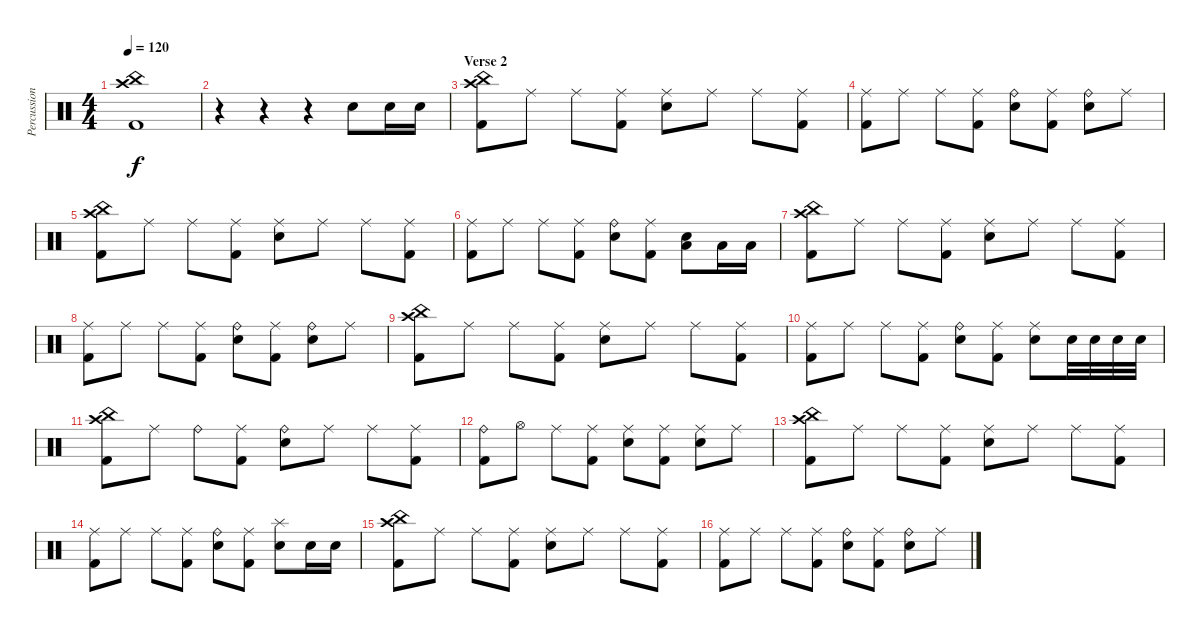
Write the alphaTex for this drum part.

\track ("Percussion" "Percussion") {instrument percussion}
\staff {score}
\articulation defaults
\ts (4 4)
\tempo 120
\clef neutral
\ks c
("China (hit)" "Crash high (hit)" "Kick (hit) 2").1{dy f} |
r.4 r.4 r.4 "Electric Snare (hit)".8 "Electric Snare (hit)".16 "Electric Snare (hit)".16 |
\section ("" "Verse 2")
("China (hit)" "Crash high (hit)" "Kick (hit) 2").8 "Ride (middle)".8 "Ride (middle)".8 ("Ride (middle)" "Kick (hit) 2").8 ("Ride (middle)" "Electric Snare (hit)").8 "Ride (middle)".8 "Ride (middle)".8 ("Ride (middle)" "Kick (hit) 2").8 |
("Ride (middle)" "Kick (hit) 2").8 "Ride (middle)".8 "Ride (middle)".8 ("Ride (middle)" "Kick (hit) 2").8 ("Ride (bell)" "Electric Snare (hit)").8 ("Ride (middle)" "Kick (hit) 2").8 ("Ride (bell)" "Electric Snare (hit)").8 "Ride (middle)".8 |
("China (hit)" "Crash high (hit)" "Kick (hit) 2").8 "Ride (middle)".8 "Ride (middle)".8 ("Ride (middle)" "Kick (hit) 2").8 ("Ride (middle)" "Electric Snare (hit)").8 "Ride (middle)".8 "Ride (middle)".8 ("Ride (middle)" "Kick (hit) 2").8 |
("Ride (middle)" "Kick (hit) 2").8 "Ride (middle)".8 "Ride (middle)".8 ("Ride (middle)" "Kick (hit) 2").8 ("Ride (bell)" "Electric Snare (hit)").8 ("Ride (middle)" "Kick (hit) 2").8 ("Electric Snare (hit)" "Low Floor Tom (hit)").8 "Low Tom (hit)".16 "Low Floor Tom (hit)".16 |
("China (hit)" "Crash high (hit)" "Kick (hit) 2").8 "Ride (middle)".8 "Ride (middle)".8 ("Ride (middle)" "Kick (hit) 2").8 ("Ride (middle)" "Electric Snare (hit)").8 "Ride (middle)".8 "Ride (middle)".8 ("Ride (middle)" "Kick (hit) 2").8 |
("Ride (middle)" "Kick (hit) 2").8 "Ride (middle)".8 "Ride (middle)".8 ("Ride (middle)" "Kick (hit) 2").8 ("Ride (bell)" "Electric Snare (hit)").8 ("Ride (middle)" "Kick (hit) 2").8 ("Ride (bell)" "Electric Snare (hit)").8 "Ride (middle)".8 |
("China (hit)" "Crash high (hit)" "Kick (hit) 2").8 "Ride (middle)".8 "Ride (middle)".8 ("Ride (middle)" "Kick (hit) 2").8 ("Ride (middle)" "Electric Snare (hit)").8 "Ride (middle)".8 "Ride (middle)".8 ("Ride (middle)" "Kick (hit) 2").8 |
("Ride (middle)" "Kick (hit) 2").8 "Ride (middle)".8 "Ride (middle)".8 ("Ride (middle)" "Kick (hit) 2").8 ("Ride (bell)" "Electric Snare (hit)").8 ("Ride (middle)" "Kick (hit) 2").8 ("Ride (middle)" "Electric Snare (hit)").8 "Electric Snare (hit)".32 "Electric Snare (hit)".32 "Electric Snare (hit)".32 "Electric Snare (hit)".32 |
("China (hit)" "Crash high (hit)" "Kick (hit) 2").8 "Ride (middle)".8 "Ride (bell)".8 ("Ride (middle)" "Kick (hit) 2").8 ("Ride (bell)" "Electric Snare (hit)").8 "Ride (middle)".8 "Ride (middle)".8 ("Ride (middle)" "Kick (hit) 2").8 |
("Ride (bell)" "Kick (hit) 2").8 "Hi-Hat (open)".8 "Ride (middle)".8 ("Ride (middle)" "Kick (hit) 2").8 ("Ride (middle)" "Electric Snare (hit)").8 ("Ride (middle)" "Kick (hit) 2").8 ("Ride (middle)" "Electric Snare (hit)").8 "Ride (middle)".8 |
("China (hit)" "Crash high (hit)" "Kick (hit) 2").8 "Ride (middle)".8 "Ride (middle)".8 ("Ride (middle)" "Kick (hit) 2").8 ("Ride (middle)" "Electric Snare (hit)").8 "Ride (middle)".8 "Ride (middle)".8 ("Ride (middle)" "Kick (hit) 2").8 |
("Ride (middle)" "Kick (hit) 2").8 "Ride (middle)".8 "Ride (middle)".8 ("Ride (middle)" "Kick (hit) 2").8 ("Ride (bell)" "Electric Snare (hit)").8 ("Ride (middle)" "Kick (hit) 2").8 ("Splash (hit)" "Electric Snare (hit)").8 "Electric Snare (hit)".16 "Electric Snare (hit)".16 |
("China (hit)" "Crash high (hit)" "Kick (hit) 2").8 "Ride (middle)".8 "Ride (middle)".8 ("Ride (middle)" "Kick (hit) 2").8 ("Ride (middle)" "Electric Snare (hit)").8 "Ride (middle)".8 "Ride (middle)".8 ("Ride (middle)" "Kick (hit) 2").8 |
("Ride (middle)" "Kick (hit) 2").8 "Ride (middle)".8 "Ride (middle)".8 ("Ride (middle)" "Kick (hit) 2").8 ("Ride (bell)" "Electric Snare (hit)").8 ("Ride (middle)" "Kick (hit) 2").8 ("Ride (bell)" "Electric Snare (hit)").8 "Ride (middle)".8
